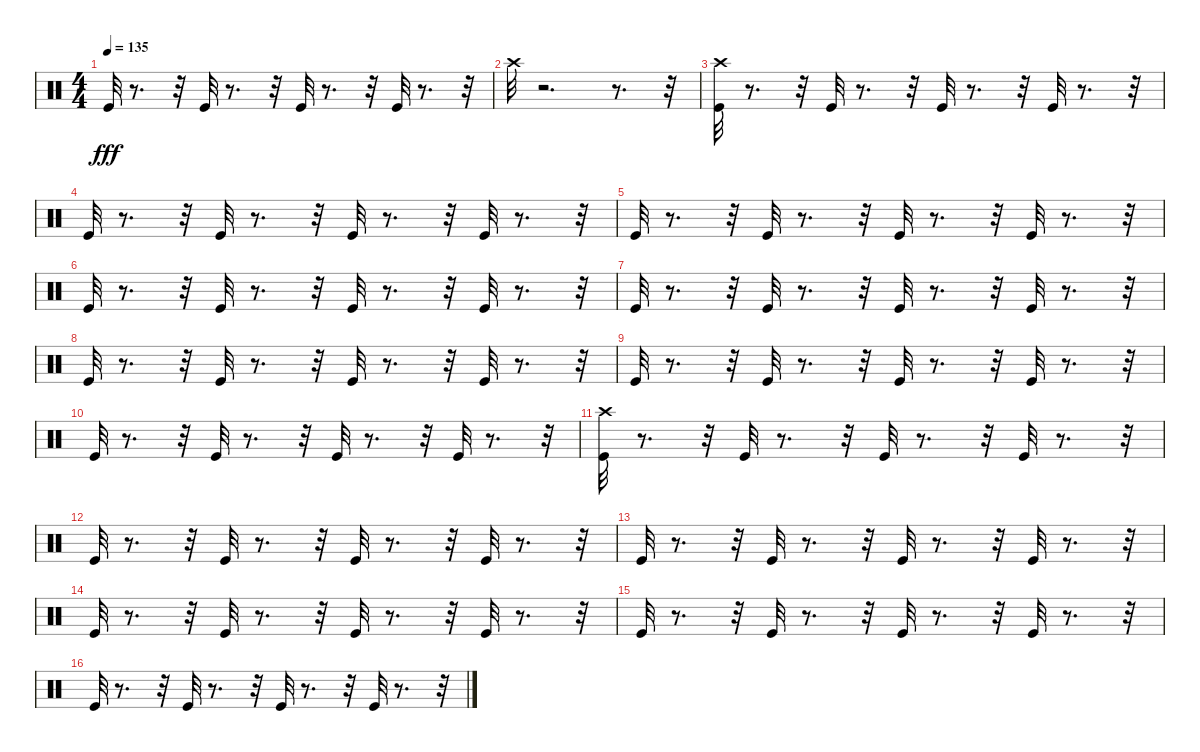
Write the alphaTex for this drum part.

\track "" {instrument percussion}
\staff {score}
\articulation defaults
\ts (4 4)
\tempo 135
\clef neutral
\ks c "Kick (hit)".32{dy fff}
r.8{d} r.32 "Kick (hit)".32 r.8{d} r.32 "Kick (hit)".32 r.8{d} r.32 "Kick (hit)".32 r.8{d} r.32 |
"Crash high (hit)".32 r.2{d} r.8{d} r.32 |
("Kick (hit)" "Crash high (hit)").32 r.8{d} r.32 "Kick (hit)".32 r.8{d} r.32 "Kick (hit)".32 r.8{d} r.32 "Kick (hit)".32 r.8{d} r.32 |
"Kick (hit)".32 r.8{d} r.32 "Kick (hit)".32 r.8{d} r.32 "Kick (hit)".32 r.8{d} r.32 "Kick (hit)".32 r.8{d} r.32 |
"Kick (hit)".32 r.8{d} r.32 "Kick (hit)".32 r.8{d} r.32 "Kick (hit)".32 r.8{d} r.32 "Kick (hit)".32 r.8{d} r.32 |
"Kick (hit)".32 r.8{d} r.32 "Kick (hit)".32 r.8{d} r.32 "Kick (hit)".32 r.8{d} r.32 "Kick (hit)".32 r.8{d} r.32 |
"Kick (hit)".32 r.8{d} r.32 "Kick (hit)".32 r.8{d} r.32 "Kick (hit)".32 r.8{d} r.32 "Kick (hit)".32 r.8{d} r.32 |
"Kick (hit)".32 r.8{d} r.32 "Kick (hit)".32 r.8{d} r.32 "Kick (hit)".32 r.8{d} r.32 "Kick (hit)".32 r.8{d} r.32 |
"Kick (hit)".32 r.8{d} r.32 "Kick (hit)".32 r.8{d} r.32 "Kick (hit)".32 r.8{d} r.32 "Kick (hit)".32 r.8{d} r.32 |
"Kick (hit)".32 r.8{d} r.32 "Kick (hit)".32 r.8{d} r.32 "Kick (hit)".32 r.8{d} r.32 "Kick (hit)".32 r.8{d} r.32 |
("Kick (hit)" "Crash high (hit)").32 r.8{d} r.32 "Kick (hit)".32 r.8{d} r.32 "Kick (hit)".32 r.8{d} r.32 "Kick (hit)".32 r.8{d} r.32 |
"Kick (hit)".32 r.8{d} r.32 "Kick (hit)".32 r.8{d} r.32 "Kick (hit)".32 r.8{d} r.32 "Kick (hit)".32 r.8{d} r.32 |
"Kick (hit)".32 r.8{d} r.32 "Kick (hit)".32 r.8{d} r.32 "Kick (hit)".32 r.8{d} r.32 "Kick (hit)".32 r.8{d} r.32 |
"Kick (hit)".32 r.8{d} r.32 "Kick (hit)".32 r.8{d} r.32 "Kick (hit)".32 r.8{d} r.32 "Kick (hit)".32 r.8{d} r.32 |
"Kick (hit)".32 r.8{d} r.32 "Kick (hit)".32 r.8{d} r.32 "Kick (hit)".32 r.8{d} r.32 "Kick (hit)".32 r.8{d} r.32 |
"Kick (hit)".32 r.8{d} r.32 "Kick (hit)".32 r.8{d} r.32 "Kick (hit)".32 r.8{d} r.32 "Kick (hit)".32 r.8{d} r.32
